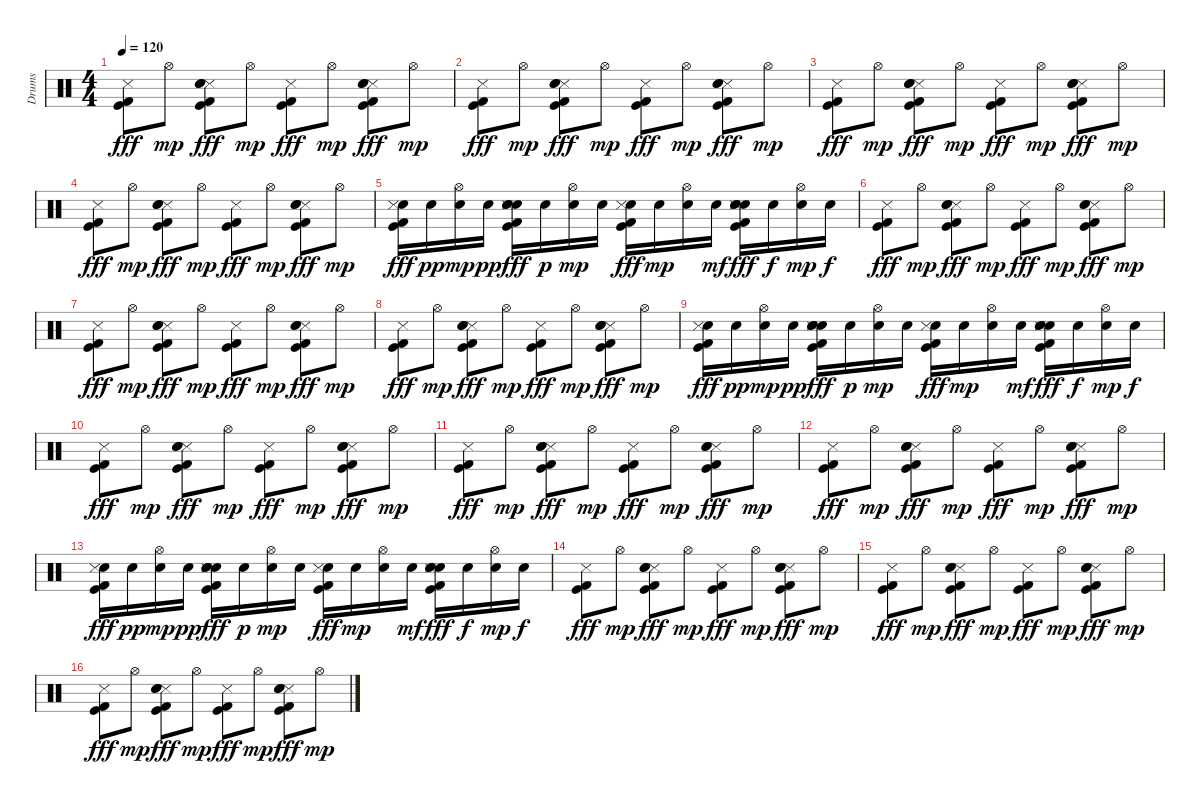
\track ("Drums" "Drums") {instrument percussion}
\staff {score}
\articulation defaults
\ts (4 4)
\tempo 120
\clef neutral
\ks c
("Metronome (hit)" "Kick (hit)" "Kick (hit) 2").8{dy fff} "Hi-Hat (open)".8{dy mp} ("Metronome (hit)" "Kick (hit)" "Kick (hit) 2" "Snare (hit)" "Snare (hit)").8{dy fff} "Hi-Hat (open)".8{dy mp} ("Metronome (hit)" "Kick (hit)" "Kick (hit) 2").8{dy fff} "Hi-Hat (open)".8{dy mp} ("Metronome (hit)" "Kick (hit)" "Kick (hit) 2" "Snare (hit) 2" "Electric Snare (hit)").8{dy fff} "Hi-Hat (open)".8{dy mp} |
("Metronome (hit)" "Kick (hit)" "Kick (hit) 2").8{dy fff} "Hi-Hat (open)".8{dy mp} ("Metronome (hit)" "Kick (hit)" "Kick (hit) 2" "Snare (hit) 2" "Electric Snare (hit)").8{dy fff} "Hi-Hat (open)".8{dy mp} ("Metronome (hit)" "Kick (hit)" "Kick (hit) 2").8{dy fff} "Hi-Hat (open)".8{dy mp} ("Metronome (hit)" "Kick (hit)" "Kick (hit) 2" "Snare (hit) 2" "Electric Snare (hit)").8{dy fff} "Hi-Hat (open)".8{dy mp} |
("Metronome (hit)" "Kick (hit)" "Kick (hit) 2").8{dy fff} "Hi-Hat (open)".8{dy mp} ("Metronome (hit)" "Kick (hit)" "Kick (hit) 2" "Snare (hit) 2" "Electric Snare (hit)").8{dy fff} "Hi-Hat (open)".8{dy mp} ("Metronome (hit)" "Kick (hit)" "Kick (hit) 2").8{dy fff} "Hi-Hat (open)".8{dy mp} ("Metronome (hit)" "Kick (hit)" "Kick (hit) 2" "Snare (hit) 2" "Electric Snare (hit)").8{dy fff} "Hi-Hat (open)".8{dy mp} |
("Metronome (hit)" "Kick (hit)" "Kick (hit) 2").8{dy fff} "Hi-Hat (open)".8{dy mp} ("Metronome (hit)" "Kick (hit)" "Kick (hit) 2" "Snare (hit) 2" "Electric Snare (hit)").8{dy fff} "Hi-Hat (open)".8{dy mp} ("Metronome (hit)" "Kick (hit)" "Kick (hit) 2").8{dy fff} "Hi-Hat (open)".8{dy mp} ("Metronome (hit)" "Kick (hit)" "Kick (hit) 2" "Snare (hit) 2" "Electric Snare (hit)").8{dy fff} "Hi-Hat (open)".8{dy mp} |
("Snare (hit)" "Metronome (hit)" "Kick (hit)" "Kick (hit) 2").16{dy fff} "Snare (hit)".16{dy pp} ("Snare (hit)" "Hi-Hat (open)").16{dy mp} "Snare (hit)".16{dy pp} ("Snare (hit)" "Metronome (hit)" "Kick (hit)" "Kick (hit) 2" "Snare (hit) 2" "Electric Snare (hit)").16{dy fff} "Snare (hit)".16{dy p} ("Snare (hit)" "Hi-Hat (open)").16{dy mp} "Snare (hit)".16 ("Snare (hit)" "Metronome (hit)" "Kick (hit)" "Kick (hit) 2").16{dy fff} "Snare (hit)".16{dy mp} ("Snare (hit)" "Hi-Hat (open)").16 "Snare (hit)".16{dy mf} ("Snare (hit)" "Metronome (hit)" "Kick (hit)" "Kick (hit) 2" "Snare (hit) 2" "Electric Snare (hit)").16{dy fff} "Snare (hit)".16{dy f} ("Snare (hit)" "Hi-Hat (open)").16{dy mp} "Snare (hit)".16{dy f} |
("Metronome (hit)" "Kick (hit)" "Kick (hit) 2").8{dy fff} "Hi-Hat (open)".8{dy mp} ("Metronome (hit)" "Kick (hit)" "Kick (hit) 2" "Snare (hit) 2" "Electric Snare (hit)").8{dy fff} "Hi-Hat (open)".8{dy mp} ("Metronome (hit)" "Kick (hit)" "Kick (hit) 2").8{dy fff} "Hi-Hat (open)".8{dy mp} ("Metronome (hit)" "Kick (hit)" "Kick (hit) 2" "Snare (hit) 2" "Electric Snare (hit)").8{dy fff} "Hi-Hat (open)".8{dy mp} |
("Metronome (hit)" "Kick (hit)" "Kick (hit) 2").8{dy fff} "Hi-Hat (open)".8{dy mp} ("Metronome (hit)" "Kick (hit)" "Kick (hit) 2" "Snare (hit) 2" "Electric Snare (hit)").8{dy fff} "Hi-Hat (open)".8{dy mp} ("Metronome (hit)" "Kick (hit)" "Kick (hit) 2").8{dy fff} "Hi-Hat (open)".8{dy mp} ("Metronome (hit)" "Kick (hit)" "Kick (hit) 2" "Snare (hit) 2" "Electric Snare (hit)").8{dy fff} "Hi-Hat (open)".8{dy mp} |
("Metronome (hit)" "Kick (hit)" "Kick (hit) 2").8{dy fff} "Hi-Hat (open)".8{dy mp} ("Metronome (hit)" "Kick (hit)" "Kick (hit) 2" "Snare (hit) 2" "Electric Snare (hit)").8{dy fff} "Hi-Hat (open)".8{dy mp} ("Metronome (hit)" "Kick (hit)" "Kick (hit) 2").8{dy fff} "Hi-Hat (open)".8{dy mp} ("Metronome (hit)" "Kick (hit)" "Kick (hit) 2" "Snare (hit) 2" "Electric Snare (hit)").8{dy fff} "Hi-Hat (open)".8{dy mp} |
("Snare (hit)" "Metronome (hit)" "Kick (hit)" "Kick (hit) 2").16{dy fff} "Snare (hit)".16{dy pp} ("Snare (hit)" "Hi-Hat (open)").16{dy mp} "Snare (hit)".16{dy pp} ("Snare (hit)" "Metronome (hit)" "Kick (hit)" "Kick (hit) 2" "Snare (hit) 2" "Electric Snare (hit)").16{dy fff} "Snare (hit)".16{dy p} ("Snare (hit)" "Hi-Hat (open)").16{dy mp} "Snare (hit)".16 ("Snare (hit)" "Metronome (hit)" "Kick (hit)" "Kick (hit) 2").16{dy fff} "Snare (hit)".16{dy mp} ("Snare (hit)" "Hi-Hat (open)").16 "Snare (hit)".16{dy mf} ("Snare (hit)" "Metronome (hit)" "Kick (hit)" "Kick (hit) 2" "Snare (hit) 2" "Electric Snare (hit)").16{dy fff} "Snare (hit)".16{dy f} ("Snare (hit)" "Hi-Hat (open)").16{dy mp} "Snare (hit)".16{dy f} |
("Metronome (hit)" "Kick (hit)" "Kick (hit) 2").8{dy fff} "Hi-Hat (open)".8{dy mp} ("Metronome (hit)" "Kick (hit)" "Kick (hit) 2" "Snare (hit) 2" "Electric Snare (hit)").8{dy fff} "Hi-Hat (open)".8{dy mp} ("Metronome (hit)" "Kick (hit)" "Kick (hit) 2").8{dy fff} "Hi-Hat (open)".8{dy mp} ("Metronome (hit)" "Kick (hit)" "Kick (hit) 2" "Snare (hit) 2" "Electric Snare (hit)").8{dy fff} "Hi-Hat (open)".8{dy mp} |
("Metronome (hit)" "Kick (hit)" "Kick (hit) 2").8{dy fff} "Hi-Hat (open)".8{dy mp} ("Metronome (hit)" "Kick (hit)" "Kick (hit) 2" "Snare (hit) 2" "Electric Snare (hit)").8{dy fff} "Hi-Hat (open)".8{dy mp} ("Metronome (hit)" "Kick (hit)" "Kick (hit) 2").8{dy fff} "Hi-Hat (open)".8{dy mp} ("Metronome (hit)" "Kick (hit)" "Kick (hit) 2" "Snare (hit) 2" "Electric Snare (hit)").8{dy fff} "Hi-Hat (open)".8{dy mp} |
("Metronome (hit)" "Kick (hit)" "Kick (hit) 2").8{dy fff} "Hi-Hat (open)".8{dy mp} ("Metronome (hit)" "Kick (hit)" "Kick (hit) 2" "Snare (hit) 2" "Electric Snare (hit)").8{dy fff} "Hi-Hat (open)".8{dy mp} ("Metronome (hit)" "Kick (hit)" "Kick (hit) 2").8{dy fff} "Hi-Hat (open)".8{dy mp} ("Metronome (hit)" "Kick (hit)" "Kick (hit) 2" "Snare (hit) 2" "Electric Snare (hit)").8{dy fff} "Hi-Hat (open)".8{dy mp} |
("Snare (hit)" "Metronome (hit)" "Kick (hit)" "Kick (hit) 2").16{dy fff} "Snare (hit)".16{dy pp} ("Snare (hit)" "Hi-Hat (open)").16{dy mp} "Snare (hit)".16{dy pp} ("Snare (hit)" "Metronome (hit)" "Kick (hit)" "Kick (hit) 2" "Snare (hit) 2" "Electric Snare (hit)").16{dy fff} "Snare (hit)".16{dy p} ("Snare (hit)" "Hi-Hat (open)").16{dy mp} "Snare (hit)".16 ("Snare (hit)" "Metronome (hit)" "Kick (hit)" "Kick (hit) 2").16{dy fff} "Snare (hit)".16{dy mp} ("Snare (hit)" "Hi-Hat (open)").16 "Snare (hit)".16{dy mf} ("Snare (hit)" "Metronome (hit)" "Kick (hit)" "Kick (hit) 2" "Snare (hit) 2" "Electric Snare (hit)").16{dy fff} "Snare (hit)".16{dy f} ("Snare (hit)" "Hi-Hat (open)").16{dy mp} "Snare (hit)".16{dy f} |
("Metronome (hit)" "Kick (hit)" "Kick (hit) 2").8{dy fff} "Hi-Hat (open)".8{dy mp} ("Metronome (hit)" "Kick (hit)" "Kick (hit) 2" "Snare (hit) 2" "Electric Snare (hit)").8{dy fff} "Hi-Hat (open)".8{dy mp} ("Metronome (hit)" "Kick (hit)" "Kick (hit) 2").8{dy fff} "Hi-Hat (open)".8{dy mp} ("Metronome (hit)" "Kick (hit)" "Kick (hit) 2" "Snare (hit) 2" "Electric Snare (hit)").8{dy fff} "Hi-Hat (open)".8{dy mp} |
("Metronome (hit)" "Kick (hit)" "Kick (hit) 2").8{dy fff} "Hi-Hat (open)".8{dy mp} ("Metronome (hit)" "Kick (hit)" "Kick (hit) 2" "Snare (hit) 2" "Electric Snare (hit)").8{dy fff} "Hi-Hat (open)".8{dy mp} ("Metronome (hit)" "Kick (hit)" "Kick (hit) 2").8{dy fff} "Hi-Hat (open)".8{dy mp} ("Metronome (hit)" "Kick (hit)" "Kick (hit) 2" "Snare (hit) 2" "Electric Snare (hit)").8{dy fff} "Hi-Hat (open)".8{dy mp} |
("Metronome (hit)" "Kick (hit)" "Kick (hit) 2").8{dy fff} "Hi-Hat (open)".8{dy mp} ("Metronome (hit)" "Kick (hit)" "Kick (hit) 2" "Snare (hit) 2" "Electric Snare (hit)").8{dy fff} "Hi-Hat (open)".8{dy mp} ("Metronome (hit)" "Kick (hit)" "Kick (hit) 2").8{dy fff} "Hi-Hat (open)".8{dy mp} ("Metronome (hit)" "Kick (hit)" "Kick (hit) 2" "Snare (hit) 2" "Electric Snare (hit)").8{dy fff} "Hi-Hat (open)".8{dy mp}
